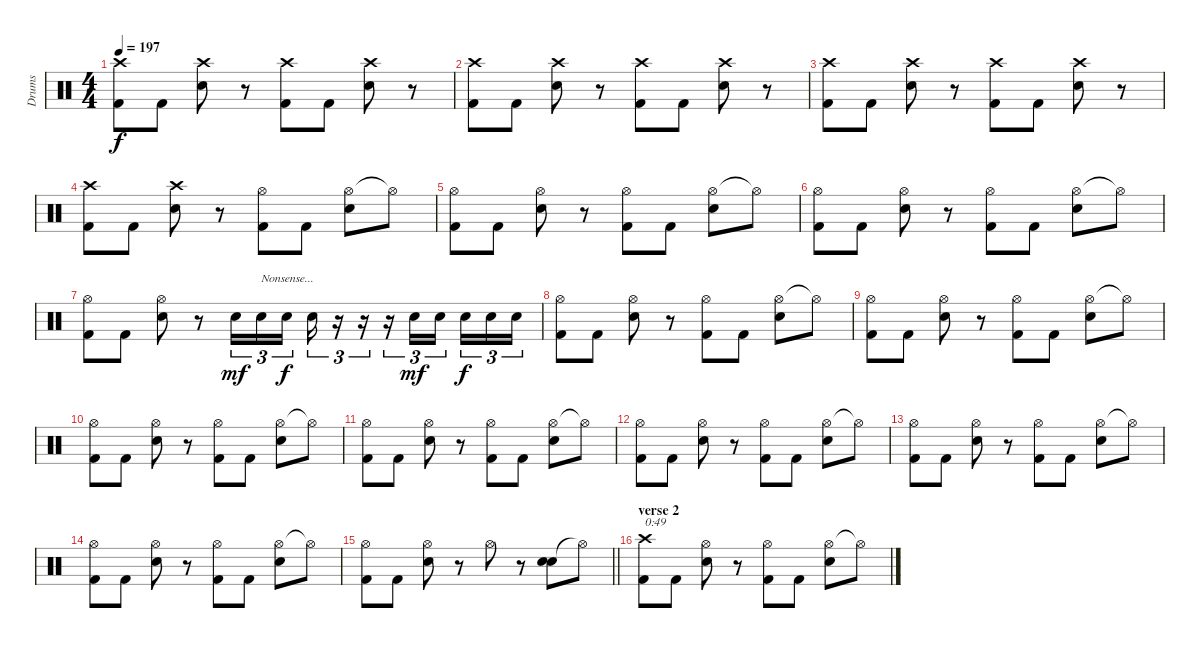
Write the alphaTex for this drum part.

\track ("Drums" "Drums") {instrument percussion}
\staff {score}
\articulation defaults
\ts (4 4)
\tempo 197
\clef neutral
\ks c
("Crash high (hit)" "Kick (hit) 2").8{dy f} "Kick (hit) 2".8 ("Crash high (hit)" "Snare (hit) 2").8 r.8 ("Crash high (hit)" "Kick (hit) 2").8 "Kick (hit) 2".8 ("Crash high (hit)" "Snare (hit) 2").8 r.8 |
("Crash high (hit)" "Kick (hit) 2").8 "Kick (hit) 2".8 ("Crash high (hit)" "Snare (hit) 2").8 r.8 ("Crash high (hit)" "Kick (hit) 2").8 "Kick (hit) 2".8 ("Crash high (hit)" "Snare (hit) 2").8 r.8 |
("Crash high (hit)" "Kick (hit) 2").8 "Kick (hit) 2".8 ("Crash high (hit)" "Snare (hit) 2").8 r.8 ("Crash high (hit)" "Kick (hit) 2").8 "Kick (hit) 2".8 ("Crash high (hit)" "Snare (hit) 2").8 r.8 |
("Crash high (hit)" "Kick (hit) 2").8 "Kick (hit) 2".8 ("Crash high (hit)" "Snare (hit) 2").8 r.8 ("Hi-Hat (open)" "Kick (hit) 2").8 "Kick (hit) 2".8 ("Hi-Hat (open)" "Snare (hit) 2").8 "Hi-Hat (open)"{t}.8 |
("Hi-Hat (open)" "Kick (hit) 2").8 "Kick (hit) 2".8 ("Hi-Hat (open)" "Snare (hit) 2").8 r.8 ("Hi-Hat (open)" "Kick (hit) 2").8 "Kick (hit) 2".8 ("Hi-Hat (open)" "Snare (hit) 2").8 "Hi-Hat (open)"{t}.8 |
("Hi-Hat (open)" "Kick (hit) 2").8 "Kick (hit) 2".8 ("Hi-Hat (open)" "Snare (hit) 2").8 r.8 ("Hi-Hat (open)" "Kick (hit) 2").8 "Kick (hit) 2".8 ("Hi-Hat (open)" "Snare (hit) 2").8 "Hi-Hat (open)"{t}.8 |
("Hi-Hat (open)" "Kick (hit) 2").8 "Kick (hit) 2".8 ("Hi-Hat (open)" "Snare (hit) 2").8 r.8 "Snare (hit) 2".16{tu (3 2) dy mf} "Snare (hit) 2".16{tu (3 2) txt "Nonsense..."} "Snare (hit) 2".16{tu (3 2) dy f beam splitsecondary} "Snare (hit) 2".16{tu (3 2)} r.16{tu (3 2)} r.16{tu (3 2)} r.16{tu (3 2)} "Snare (hit) 2".16{tu (3 2) dy mf} "Snare (hit) 2".16{tu (3 2) beam splitsecondary} "Snare (hit) 2".16{tu (3 2) dy f} "Snare (hit) 2".16{tu (3 2)} "Snare (hit) 2".16{tu (3 2)} |
("Hi-Hat (open)" "Kick (hit) 2").8 "Kick (hit) 2".8 ("Hi-Hat (open)" "Snare (hit) 2").8 r.8 ("Hi-Hat (open)" "Kick (hit) 2").8 "Kick (hit) 2".8 ("Hi-Hat (open)" "Snare (hit) 2").8 "Hi-Hat (open)"{t}.8 |
("Hi-Hat (open)" "Kick (hit) 2").8 "Kick (hit) 2".8 ("Hi-Hat (open)" "Snare (hit) 2").8 r.8 ("Hi-Hat (open)" "Kick (hit) 2").8 "Kick (hit) 2".8 ("Hi-Hat (open)" "Snare (hit) 2").8 "Hi-Hat (open)"{t}.8 |
("Hi-Hat (open)" "Kick (hit) 2").8 "Kick (hit) 2".8 ("Hi-Hat (open)" "Snare (hit) 2").8 r.8 ("Hi-Hat (open)" "Kick (hit) 2").8 "Kick (hit) 2".8 ("Hi-Hat (open)" "Snare (hit) 2").8 "Hi-Hat (open)"{t}.8 |
("Hi-Hat (open)" "Kick (hit) 2").8 "Kick (hit) 2".8 ("Hi-Hat (open)" "Snare (hit) 2").8 r.8 ("Hi-Hat (open)" "Kick (hit) 2").8 "Kick (hit) 2".8 ("Hi-Hat (open)" "Snare (hit) 2").8 "Hi-Hat (open)"{t}.8 |
("Hi-Hat (open)" "Kick (hit) 2").8 "Kick (hit) 2".8 ("Hi-Hat (open)" "Snare (hit) 2").8 r.8 ("Hi-Hat (open)" "Kick (hit) 2").8 "Kick (hit) 2".8 ("Hi-Hat (open)" "Snare (hit) 2").8 "Hi-Hat (open)"{t}.8 |
("Hi-Hat (open)" "Kick (hit) 2").8 "Kick (hit) 2".8 ("Hi-Hat (open)" "Snare (hit) 2").8 r.8 ("Hi-Hat (open)" "Kick (hit) 2").8 "Kick (hit) 2".8 ("Hi-Hat (open)" "Snare (hit) 2").8 "Hi-Hat (open)"{t}.8 |
("Hi-Hat (open)" "Kick (hit) 2").8 "Kick (hit) 2".8 ("Hi-Hat (open)" "Snare (hit) 2").8 r.8 ("Hi-Hat (open)" "Kick (hit) 2").8 "Kick (hit) 2".8 ("Hi-Hat (open)" "Snare (hit) 2").8 "Hi-Hat (open)"{t}.8 |
\barLineRight lightlight
("Hi-Hat (open)" "Kick (hit) 2").8 "Kick (hit) 2".8 ("Hi-Hat (open)" "Snare (hit) 2").8 r.8 "Hi-Hat (open)".8 r.8 ("Snare (hit) 2" "Snare (hit) 2").8 "Hi-Hat (open)"{t}.8 |
\section ("" "verse 2")
("Crash high (hit)" "Kick (hit) 2").8{txt "0:49"} "Kick (hit) 2".8 ("Hi-Hat (open)" "Snare (hit) 2").8 r.8 ("Hi-Hat (open)" "Kick (hit) 2").8 "Kick (hit) 2".8 ("Hi-Hat (open)" "Snare (hit) 2").8 "Hi-Hat (open)"{t}.8
